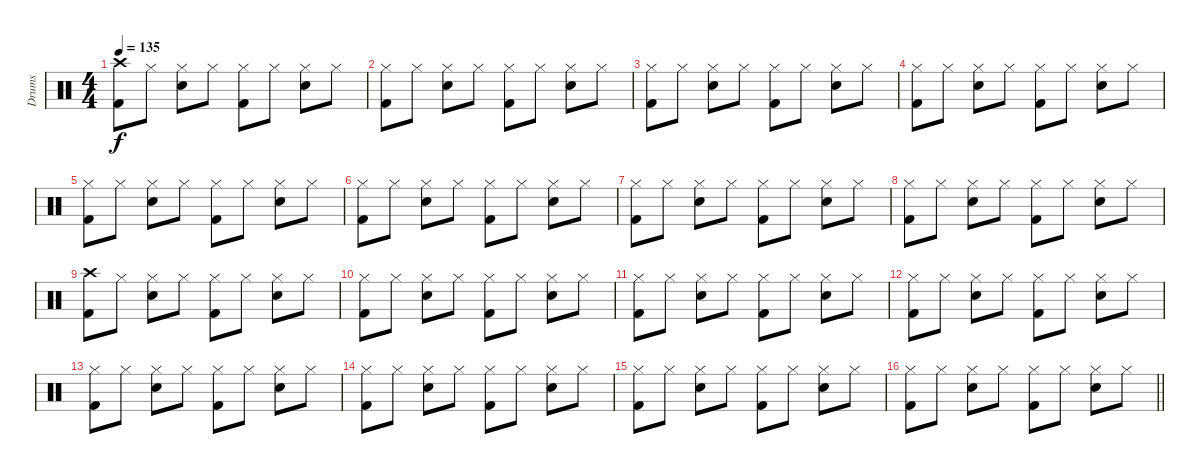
\track ("Drums" "Drums") {instrument percussion}
\staff {score}
\articulation defaults
\ts (4 4)
\tempo 135
\clef neutral
\ks c
("Crash high (hit)" "Kick (hit) 2").8{dy f} "Hi-Hat (closed)".8 ("Hi-Hat (closed)" "Electric Snare (hit)").8 "Hi-Hat (closed)".8 ("Hi-Hat (closed)" "Kick (hit) 2").8 "Hi-Hat (closed)".8 ("Hi-Hat (closed)" "Electric Snare (hit)").8 "Hi-Hat (closed)".8 |
("Hi-Hat (closed)" "Kick (hit) 2").8 "Hi-Hat (closed)".8 ("Hi-Hat (closed)" "Electric Snare (hit)").8 "Hi-Hat (closed)".8 ("Hi-Hat (closed)" "Kick (hit) 2").8 "Hi-Hat (closed)".8 ("Hi-Hat (closed)" "Electric Snare (hit)").8 "Hi-Hat (closed)".8 |
("Hi-Hat (closed)" "Kick (hit) 2").8 "Hi-Hat (closed)".8 ("Hi-Hat (closed)" "Electric Snare (hit)").8 "Hi-Hat (closed)".8 ("Hi-Hat (closed)" "Kick (hit) 2").8 "Hi-Hat (closed)".8 ("Hi-Hat (closed)" "Electric Snare (hit)").8 "Hi-Hat (closed)".8 |
("Hi-Hat (closed)" "Kick (hit) 2").8 "Hi-Hat (closed)".8 ("Hi-Hat (closed)" "Electric Snare (hit)").8 "Hi-Hat (closed)".8 ("Hi-Hat (closed)" "Kick (hit) 2").8 "Hi-Hat (closed)".8 ("Hi-Hat (closed)" "Electric Snare (hit)").8 "Hi-Hat (closed)".8 |
("Hi-Hat (closed)" "Kick (hit) 2").8 "Hi-Hat (closed)".8 ("Hi-Hat (closed)" "Electric Snare (hit)").8 "Hi-Hat (closed)".8 ("Hi-Hat (closed)" "Kick (hit) 2").8 "Hi-Hat (closed)".8 ("Hi-Hat (closed)" "Electric Snare (hit)").8 "Hi-Hat (closed)".8 |
("Hi-Hat (closed)" "Kick (hit) 2").8 "Hi-Hat (closed)".8 ("Hi-Hat (closed)" "Electric Snare (hit)").8 "Hi-Hat (closed)".8 ("Hi-Hat (closed)" "Kick (hit) 2").8 "Hi-Hat (closed)".8 ("Hi-Hat (closed)" "Electric Snare (hit)").8 "Hi-Hat (closed)".8 |
("Hi-Hat (closed)" "Kick (hit) 2").8 "Hi-Hat (closed)".8 ("Hi-Hat (closed)" "Electric Snare (hit)").8 "Hi-Hat (closed)".8 ("Hi-Hat (closed)" "Kick (hit) 2").8 "Hi-Hat (closed)".8 ("Hi-Hat (closed)" "Electric Snare (hit)").8 "Hi-Hat (closed)".8 |
("Hi-Hat (closed)" "Kick (hit) 2").8 "Hi-Hat (closed)".8 ("Hi-Hat (closed)" "Electric Snare (hit)").8 "Hi-Hat (closed)".8 ("Hi-Hat (closed)" "Kick (hit) 2").8 "Hi-Hat (closed)".8 ("Hi-Hat (closed)" "Electric Snare (hit)").8 "Hi-Hat (closed)".8 |
("Crash high (hit)" "Kick (hit) 2").8 "Hi-Hat (closed)".8 ("Hi-Hat (closed)" "Electric Snare (hit)").8 "Hi-Hat (closed)".8 ("Hi-Hat (closed)" "Kick (hit) 2").8 "Hi-Hat (closed)".8 ("Hi-Hat (closed)" "Electric Snare (hit)").8 "Hi-Hat (closed)".8 |
("Hi-Hat (closed)" "Kick (hit) 2").8 "Hi-Hat (closed)".8 ("Hi-Hat (closed)" "Electric Snare (hit)").8 "Hi-Hat (closed)".8 ("Hi-Hat (closed)" "Kick (hit) 2").8 "Hi-Hat (closed)".8 ("Hi-Hat (closed)" "Electric Snare (hit)").8 "Hi-Hat (closed)".8 |
("Hi-Hat (closed)" "Kick (hit) 2").8 "Hi-Hat (closed)".8 ("Hi-Hat (closed)" "Electric Snare (hit)").8 "Hi-Hat (closed)".8 ("Hi-Hat (closed)" "Kick (hit) 2").8 "Hi-Hat (closed)".8 ("Hi-Hat (closed)" "Electric Snare (hit)").8 "Hi-Hat (closed)".8 |
("Hi-Hat (closed)" "Kick (hit) 2").8 "Hi-Hat (closed)".8 ("Hi-Hat (closed)" "Electric Snare (hit)").8 "Hi-Hat (closed)".8 ("Hi-Hat (closed)" "Kick (hit) 2").8 "Hi-Hat (closed)".8 ("Hi-Hat (closed)" "Electric Snare (hit)").8 "Hi-Hat (closed)".8 |
("Hi-Hat (closed)" "Kick (hit) 2").8 "Hi-Hat (closed)".8 ("Hi-Hat (closed)" "Electric Snare (hit)").8 "Hi-Hat (closed)".8 ("Hi-Hat (closed)" "Kick (hit) 2").8 "Hi-Hat (closed)".8 ("Hi-Hat (closed)" "Electric Snare (hit)").8 "Hi-Hat (closed)".8 |
("Hi-Hat (closed)" "Kick (hit) 2").8 "Hi-Hat (closed)".8 ("Hi-Hat (closed)" "Electric Snare (hit)").8 "Hi-Hat (closed)".8 ("Hi-Hat (closed)" "Kick (hit) 2").8 "Hi-Hat (closed)".8 ("Hi-Hat (closed)" "Electric Snare (hit)").8 "Hi-Hat (closed)".8 |
("Hi-Hat (closed)" "Kick (hit) 2").8 "Hi-Hat (closed)".8 ("Hi-Hat (closed)" "Electric Snare (hit)").8 "Hi-Hat (closed)".8 ("Hi-Hat (closed)" "Kick (hit) 2").8 "Hi-Hat (closed)".8 ("Hi-Hat (closed)" "Electric Snare (hit)").8 "Hi-Hat (closed)".8 |
\barLineRight lightlight
("Hi-Hat (closed)" "Kick (hit) 2").8 "Hi-Hat (closed)".8 ("Hi-Hat (closed)" "Electric Snare (hit)").8 "Hi-Hat (closed)".8 ("Hi-Hat (closed)" "Kick (hit) 2").8 "Hi-Hat (closed)".8 ("Hi-Hat (closed)" "Electric Snare (hit)").8 "Hi-Hat (closed)".8
